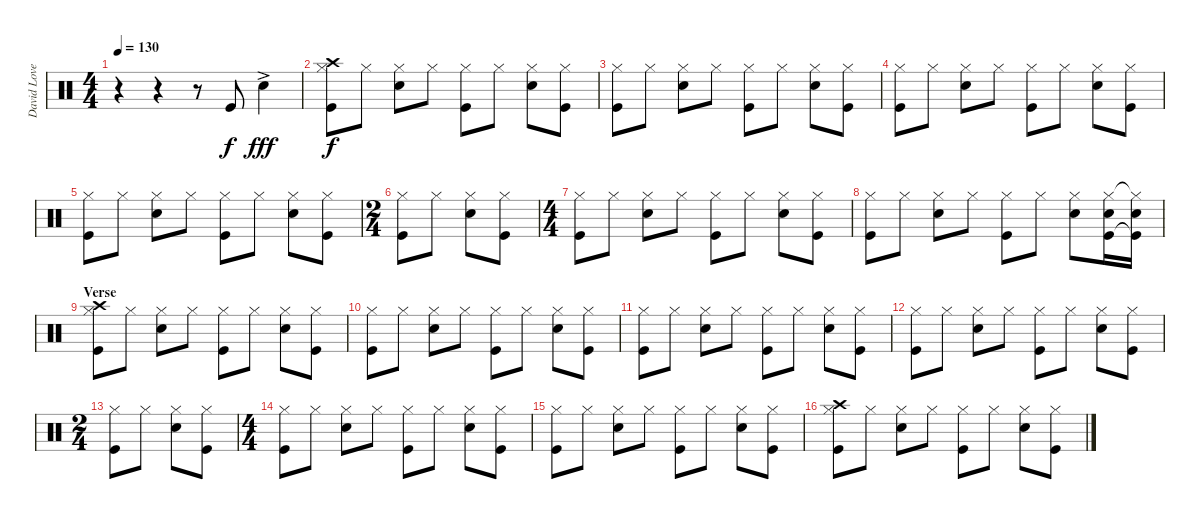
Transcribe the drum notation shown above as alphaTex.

\track ("David Lovering" "David Love") {instrument percussion}
\staff {score}
\articulation defaults
\ts (4 4)
\tempo 130
\clef neutral
\ks c
r.4{dy f} r.4 r.8 "Kick (hit)".8 "Snare (hit) 2"{ac}.4{dy fff} |
("Hi-Hat (closed)" "Crash high (hit)" "Kick (hit)").8{dy f} "Hi-Hat (closed)".8 ("Hi-Hat (closed)" "Snare (hit) 2").8 "Hi-Hat (closed)".8 ("Hi-Hat (closed)" "Kick (hit)").8 "Hi-Hat (closed)".8 ("Hi-Hat (closed)" "Snare (hit) 2").8 ("Hi-Hat (closed)" "Kick (hit)").8 |
("Hi-Hat (closed)" "Kick (hit)").8 "Hi-Hat (closed)".8 ("Hi-Hat (closed)" "Snare (hit) 2").8 "Hi-Hat (closed)".8 ("Hi-Hat (closed)" "Kick (hit)").8 "Hi-Hat (closed)".8 ("Hi-Hat (closed)" "Snare (hit) 2").8 ("Hi-Hat (closed)" "Kick (hit)").8 |
("Hi-Hat (closed)" "Kick (hit)").8 "Hi-Hat (closed)".8 ("Hi-Hat (closed)" "Snare (hit) 2").8 "Hi-Hat (closed)".8 ("Hi-Hat (closed)" "Kick (hit)").8 "Hi-Hat (closed)".8 ("Hi-Hat (closed)" "Snare (hit) 2").8 ("Hi-Hat (closed)" "Kick (hit)").8 |
("Hi-Hat (closed)" "Kick (hit)").8 "Hi-Hat (closed)".8 ("Hi-Hat (closed)" "Snare (hit) 2").8 "Hi-Hat (closed)".8 ("Hi-Hat (closed)" "Kick (hit)").8 "Hi-Hat (closed)".8 ("Hi-Hat (closed)" "Snare (hit) 2").8 ("Hi-Hat (closed)" "Kick (hit)").8 |
\ts (2 4)
("Hi-Hat (closed)" "Kick (hit)").8 "Hi-Hat (closed)".8 ("Hi-Hat (closed)" "Snare (hit) 2").8 ("Hi-Hat (closed)" "Kick (hit)").8 |
\ts (4 4)
("Hi-Hat (closed)" "Kick (hit)").8 "Hi-Hat (closed)".8 ("Hi-Hat (closed)" "Snare (hit) 2").8 "Hi-Hat (closed)".8 ("Hi-Hat (closed)" "Kick (hit)").8 "Hi-Hat (closed)".8 ("Hi-Hat (closed)" "Snare (hit) 2").8 ("Hi-Hat (closed)" "Kick (hit)").8 |
("Hi-Hat (closed)" "Kick (hit)").8 "Hi-Hat (closed)".8 ("Hi-Hat (closed)" "Snare (hit) 2").8 "Hi-Hat (closed)".8 ("Hi-Hat (closed)" "Kick (hit)").8 "Hi-Hat (closed)".8 ("Hi-Hat (closed)" "Snare (hit) 2").8 ("Hi-Hat (closed)" "Snare (hit) 2" "Kick (hit)").16 ("Hi-Hat (closed)"{t} "Snare (hit) 2" "Kick (hit)"{t}).16 |
\section ("" "Verse")
("Hi-Hat (closed)" "Crash high (hit)" "Kick (hit)").8 "Hi-Hat (closed)".8 ("Hi-Hat (closed)" "Snare (hit) 2").8 "Hi-Hat (closed)".8 ("Hi-Hat (closed)" "Kick (hit)").8 "Hi-Hat (closed)".8 ("Hi-Hat (closed)" "Snare (hit) 2").8 ("Hi-Hat (closed)" "Kick (hit)").8 |
("Hi-Hat (closed)" "Kick (hit)").8 "Hi-Hat (closed)".8 ("Hi-Hat (closed)" "Snare (hit) 2").8 "Hi-Hat (closed)".8 ("Hi-Hat (closed)" "Kick (hit)").8 "Hi-Hat (closed)".8 ("Hi-Hat (closed)" "Snare (hit) 2").8 ("Hi-Hat (closed)" "Kick (hit)").8 |
("Hi-Hat (closed)" "Kick (hit)").8 "Hi-Hat (closed)".8 ("Hi-Hat (closed)" "Snare (hit) 2").8 "Hi-Hat (closed)".8 ("Hi-Hat (closed)" "Kick (hit)").8 "Hi-Hat (closed)".8 ("Hi-Hat (closed)" "Snare (hit) 2").8 ("Hi-Hat (closed)" "Kick (hit)").8 |
("Hi-Hat (closed)" "Kick (hit)").8 "Hi-Hat (closed)".8 ("Hi-Hat (closed)" "Snare (hit) 2").8 "Hi-Hat (closed)".8 ("Hi-Hat (closed)" "Kick (hit)").8 "Hi-Hat (closed)".8 ("Hi-Hat (closed)" "Snare (hit) 2").8 ("Hi-Hat (closed)" "Kick (hit)").8 |
\ts (2 4)
("Hi-Hat (closed)" "Kick (hit)").8 "Hi-Hat (closed)".8 ("Hi-Hat (closed)" "Snare (hit) 2").8 ("Hi-Hat (closed)" "Kick (hit)").8 |
\ts (4 4)
("Hi-Hat (closed)" "Kick (hit)").8 "Hi-Hat (closed)".8 ("Hi-Hat (closed)" "Snare (hit) 2").8 "Hi-Hat (closed)".8 ("Hi-Hat (closed)" "Kick (hit)").8 "Hi-Hat (closed)".8 ("Hi-Hat (closed)" "Snare (hit) 2").8 ("Hi-Hat (closed)" "Kick (hit)").8 |
("Hi-Hat (closed)" "Kick (hit)").8 "Hi-Hat (closed)".8 ("Hi-Hat (closed)" "Snare (hit) 2").8 "Hi-Hat (closed)".8 ("Hi-Hat (closed)" "Kick (hit)").8 "Hi-Hat (closed)".8 ("Hi-Hat (closed)" "Snare (hit) 2").8 ("Hi-Hat (closed)" "Kick (hit)").8 |
("Hi-Hat (closed)" "Crash high (hit)" "Kick (hit)").8 "Hi-Hat (closed)".8 ("Hi-Hat (closed)" "Snare (hit) 2").8 "Hi-Hat (closed)".8 ("Hi-Hat (closed)" "Kick (hit)").8 "Hi-Hat (closed)".8 ("Hi-Hat (closed)" "Snare (hit) 2").8 ("Hi-Hat (closed)" "Kick (hit)").8
